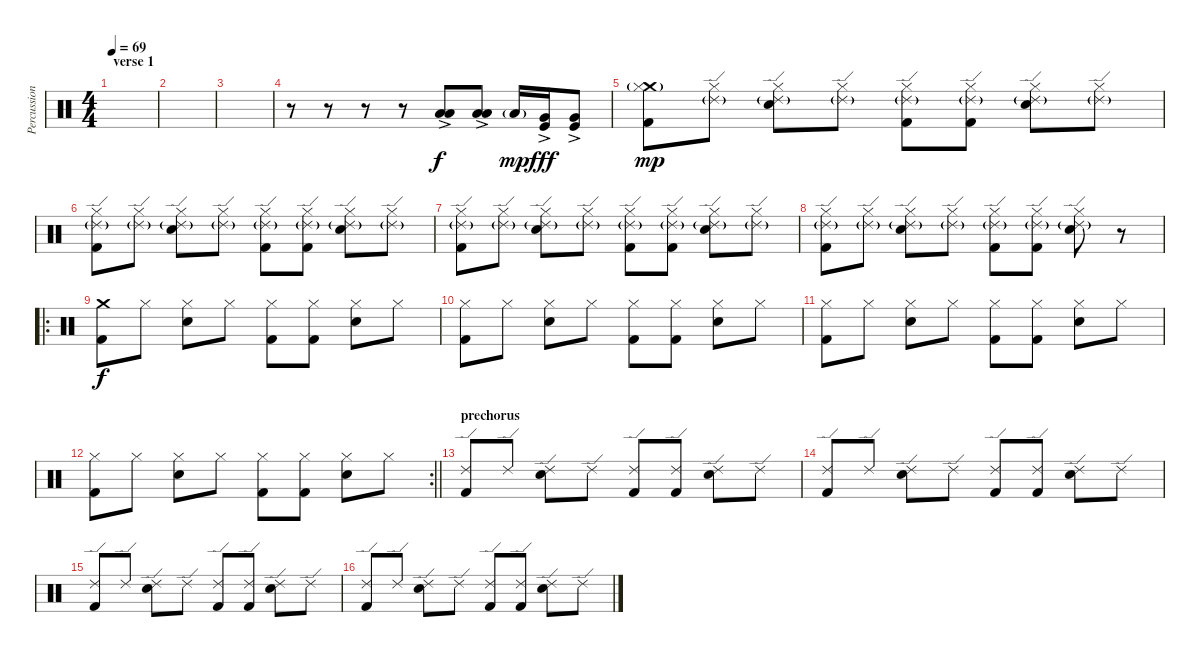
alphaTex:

\track ("Percussion" "Percussion") {instrument percussion}
\staff {score}
\articulation defaults
\ts (4 4)
\section ("" "verse 1")
\tempo 69
\clef neutral
\ks c
|
|
|
r.8 r.8 r.8 r.8 ("Low Tom (hit)"{ac} "Low Floor Tom (hit)").8 ("Low Tom (hit)"{ac} "Low Floor Tom (hit)").8 "Low Floor Tom (hit)"{g}.16{dy mp} ("Very Low Tom (hit)"{ac} "Kick (hit)").16{dy fff} ("Very Low Tom (hit)"{ac} "Kick (hit)").8 |
("Crash medium (hit)"{g} "Hi-Hat (closed)" "Kick (hit) 2").8{dy mp} ("Ride (edge) 2"{g} "Hi-Hat (closed)").8 ("Ride (edge) 2"{g} "Hi-Hat (closed)" "Electric Snare (hit)").8 ("Ride (edge) 2"{g} "Hi-Hat (closed)").8 ("Ride (edge) 2"{g} "Hi-Hat (closed)" "Kick (hit) 2").8 ("Ride (edge) 2"{g} "Hi-Hat (closed)" "Kick (hit) 2").8 ("Ride (edge) 2"{g} "Hi-Hat (closed)" "Electric Snare (hit)").8 ("Ride (edge) 2"{g} "Hi-Hat (closed)").8 |
("Ride (edge) 2"{g} "Hi-Hat (closed)" "Kick (hit) 2").8 ("Ride (edge) 2"{g} "Hi-Hat (closed)").8 ("Ride (edge) 2"{g} "Hi-Hat (closed)" "Electric Snare (hit)").8 ("Ride (edge) 2"{g} "Hi-Hat (closed)").8 ("Ride (edge) 2"{g} "Hi-Hat (closed)" "Kick (hit) 2").8 ("Ride (edge) 2"{g} "Hi-Hat (closed)" "Kick (hit) 2").8 ("Ride (edge) 2"{g} "Hi-Hat (closed)" "Electric Snare (hit)").8 ("Ride (edge) 2"{g} "Hi-Hat (closed)").8 |
("Ride (edge) 2"{g} "Hi-Hat (closed)" "Kick (hit) 2").8 ("Ride (edge) 2"{g} "Hi-Hat (closed)").8 ("Ride (edge) 2"{g} "Hi-Hat (closed)" "Electric Snare (hit)").8 ("Ride (edge) 2"{g} "Hi-Hat (closed)").8 ("Ride (edge) 2"{g} "Hi-Hat (closed)" "Kick (hit) 2").8 ("Ride (edge) 2"{g} "Hi-Hat (closed)" "Kick (hit) 2").8 ("Ride (edge) 2"{g} "Hi-Hat (closed)" "Electric Snare (hit)").8 ("Ride (edge) 2"{g} "Hi-Hat (closed)").8 |
("Ride (edge) 2"{g} "Hi-Hat (closed)" "Kick (hit) 2").8 ("Ride (edge) 2"{g} "Hi-Hat (closed)").8 ("Ride (edge) 2"{g} "Hi-Hat (closed)" "Electric Snare (hit)").8 ("Ride (edge) 2"{g} "Hi-Hat (closed)").8 ("Ride (edge) 2"{g} "Hi-Hat (closed)" "Kick (hit) 2").8 ("Ride (edge) 2"{g} "Hi-Hat (closed)" "Kick (hit) 2").8 ("Ride (edge) 2"{g} "Hi-Hat (closed)" "Electric Snare (hit)").8 r.8 |
\ro
("Crash medium (hit)" "Kick (hit) 2").8{dy f} "Hi-Hat (closed)".8 ("Hi-Hat (closed)" "Electric Snare (hit)").8 "Hi-Hat (closed)".8 ("Hi-Hat (closed)" "Kick (hit) 2").8 ("Hi-Hat (closed)" "Kick (hit) 2").8 ("Hi-Hat (closed)" "Electric Snare (hit)").8 "Hi-Hat (closed)".8 |
("Hi-Hat (closed)" "Kick (hit) 2").8 "Hi-Hat (closed)".8 ("Hi-Hat (closed)" "Electric Snare (hit)").8 "Hi-Hat (closed)".8 ("Hi-Hat (closed)" "Kick (hit) 2").8 ("Hi-Hat (closed)" "Kick (hit) 2").8 ("Hi-Hat (closed)" "Electric Snare (hit)").8 "Hi-Hat (closed)".8 |
("Hi-Hat (closed)" "Kick (hit) 2").8 "Hi-Hat (closed)".8 ("Hi-Hat (closed)" "Electric Snare (hit)").8 "Hi-Hat (closed)".8 ("Hi-Hat (closed)" "Kick (hit) 2").8 ("Hi-Hat (closed)" "Kick (hit) 2").8 ("Hi-Hat (closed)" "Electric Snare (hit)").8 "Hi-Hat (closed)".8 |
\rc 2
\barLineRight lightlight
("Hi-Hat (closed)" "Kick (hit) 2").8 "Hi-Hat (closed)".8 ("Hi-Hat (closed)" "Electric Snare (hit)").8 "Hi-Hat (closed)".8 ("Hi-Hat (closed)" "Kick (hit) 2").8 ("Hi-Hat (closed)" "Kick (hit) 2").8 ("Hi-Hat (closed)" "Electric Snare (hit)").8 "Hi-Hat (closed)".8 |
\section ("" "prechorus")
("Ride (edge) 2" "Kick (hit) 2").8 "Ride (edge) 2".8 ("Ride (edge) 2" "Electric Snare (hit)").8 "Ride (edge) 2".8 ("Ride (edge) 2" "Kick (hit) 2").8 ("Ride (edge) 2" "Kick (hit) 2").8 ("Ride (edge) 2" "Electric Snare (hit)").8 "Ride (edge) 2".8 |
("Ride (edge) 2" "Kick (hit) 2").8 "Ride (edge) 2".8 ("Ride (edge) 2" "Electric Snare (hit)").8 "Ride (edge) 2".8 ("Ride (edge) 2" "Kick (hit) 2").8 ("Ride (edge) 2" "Kick (hit) 2").8 ("Ride (edge) 2" "Electric Snare (hit)").8 "Ride (edge) 2".8 |
("Ride (edge) 2" "Kick (hit) 2").8 "Ride (edge) 2".8 ("Ride (edge) 2" "Electric Snare (hit)").8 "Ride (edge) 2".8 ("Ride (edge) 2" "Kick (hit) 2").8 ("Ride (edge) 2" "Kick (hit) 2").8 ("Ride (edge) 2" "Electric Snare (hit)").8 "Ride (edge) 2".8 |
("Ride (edge) 2" "Kick (hit) 2").8 "Ride (edge) 2".8 ("Ride (edge) 2" "Electric Snare (hit)").8 "Ride (edge) 2".8 ("Ride (edge) 2" "Kick (hit) 2").8 ("Ride (edge) 2" "Kick (hit) 2").8 ("Ride (edge) 2" "Electric Snare (hit)").8 "Ride (edge) 2".8
